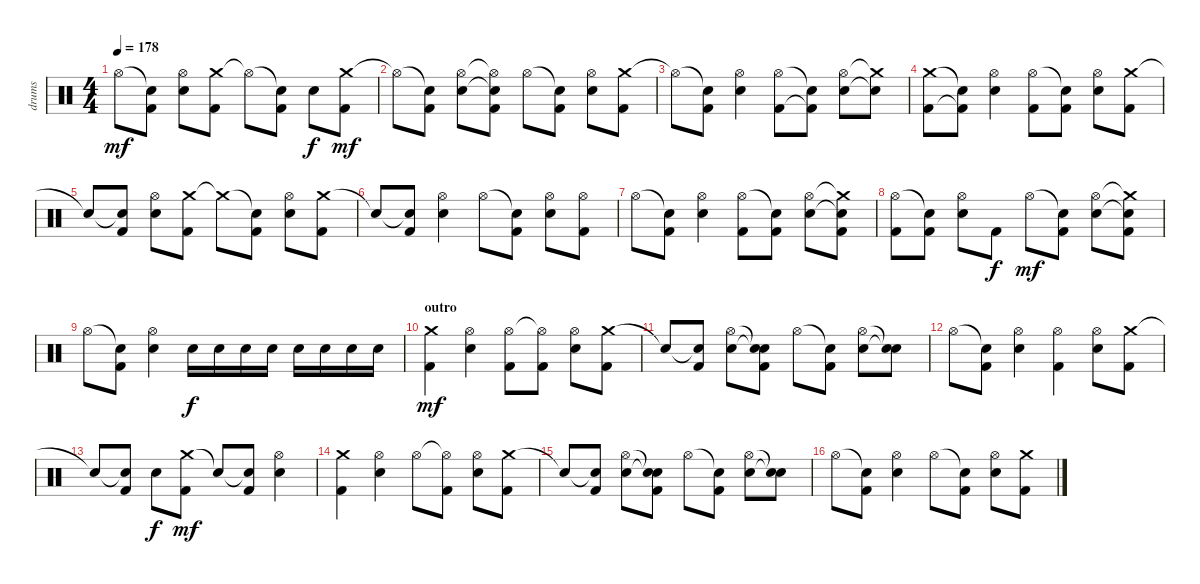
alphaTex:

\track ("drums" "drums") {instrument percussion}
\staff {score}
\articulation defaults
\ts (4 4)
\tempo 178
\clef neutral
\ks aminor "Hi-Hat (open)"{t}.8{dy mf}
("Snare (hit)"{t} "Kick (hit) 2").8 ("Hi-Hat (open)" "Snare (hit) 2").8 ("Crash medium (hit)" "Kick (hit) 2").8 "Hi-Hat (open)"{t}.8 ("Snare (hit)"{t} "Kick (hit) 2").8 "Snare (hit) 2".8{dy f} ("Crash medium (hit)" "Kick (hit) 2").8{dy mf} |
"Hi-Hat (open)"{t}.8 ("Snare (hit)"{t} "Kick (hit) 2").8 ("Hi-Hat (open)" "Snare (hit) 2").8 ("Hi-Hat (open)"{t} "Snare (hit)"{t} "Kick (hit) 2").8 "Hi-Hat (open)".8 ("Snare (hit)"{t} "Kick (hit) 2").8 ("Hi-Hat (open)" "Snare (hit) 2").8 ("Crash medium (hit)" "Kick (hit) 2").8 |
"Hi-Hat (open)"{t}.8 ("Snare (hit)"{t} "Kick (hit) 2").8 ("Hi-Hat (open)" "Snare (hit) 2").4 ("Hi-Hat (open)" "Kick (hit) 2").8 ("Snare (hit)"{t} "Kick (hit) 2"{t}).8 ("Hi-Hat (open)" "Snare (hit) 2").8 ("Crash medium (hit)"{t} "Snare (hit)"{t}).8 |
("Crash medium (hit)" "Kick (hit) 2").8 ("Snare (hit)"{t} "Kick (hit) 2"{t}).8 ("Hi-Hat (open)" "Snare (hit) 2").4 ("Hi-Hat (open)" "Kick (hit) 2").8 ("Snare (hit)"{t} "Kick (hit) 2").8 ("Hi-Hat (open)" "Snare (hit) 2").8 ("Crash medium (hit)" "Kick (hit) 2").8 |
"Snare (hit)"{t}.8 ("Snare (hit)"{t} "Kick (hit) 2").8 ("Hi-Hat (open)" "Snare (hit) 2").8 ("Crash medium (hit)" "Kick (hit) 2").8 "Crash medium (hit)"{t}.8 ("Snare (hit)"{t} "Kick (hit) 2").8 ("Hi-Hat (open)" "Snare (hit) 2").8 ("Crash medium (hit)" "Kick (hit) 2").8 |
"Snare (hit)"{t}.8 ("Snare (hit)"{t} "Kick (hit) 2").8 ("Hi-Hat (open)" "Snare (hit) 2").4 "Hi-Hat (open)".8 ("Snare (hit)"{t} "Kick (hit) 2").8 ("Hi-Hat (open)" "Snare (hit) 2").8 ("Hi-Hat (open)" "Kick (hit) 2").8 |
"Hi-Hat (open)".8 ("Snare (hit)"{t} "Kick (hit) 2").8 ("Hi-Hat (open)" "Snare (hit) 2").4 ("Hi-Hat (open)" "Kick (hit) 2").8 ("Snare (hit)"{t} "Kick (hit) 2").8 ("Hi-Hat (open)" "Snare (hit) 2").8 ("Crash medium (hit)"{t} "Snare (hit)"{t} "Kick (hit) 2").8 |
("Hi-Hat (open)" "Kick (hit) 2").8 ("Snare (hit)"{t} "Kick (hit) 2").8 ("Hi-Hat (open)" "Snare (hit) 2").8 "Kick (hit) 2".8{dy f} "Hi-Hat (open)".8{dy mf} ("Snare (hit)"{t} "Kick (hit) 2").8 ("Hi-Hat (open)" "Snare (hit) 2").8 ("Crash medium (hit)"{t} "Snare (hit)"{t} "Kick (hit) 2").8 |
"Hi-Hat (open)".8 ("Snare (hit)"{t} "Kick (hit) 2").8 ("Hi-Hat (open)" "Snare (hit) 2").4 "Snare (hit) 2".16{dy f} "Snare (hit) 2".16 "Snare (hit) 2".16 "Snare (hit) 2".16 "Snare (hit) 2".16 "Snare (hit) 2".16 "Snare (hit) 2".16 "Snare (hit) 2".16 |
\section ("" "outro")
("Crash medium (hit)" "Kick (hit) 2").4{dy mf} ("Hi-Hat (open)" "Snare (hit) 2").4 ("Hi-Hat (open)" "Kick (hit) 2").8 ("Hi-Hat (open)"{t} "Kick (hit) 2").8 ("Hi-Hat (open)" "Snare (hit) 2").8 ("Crash medium (hit)" "Kick (hit) 2").8 |
"Snare (hit)"{t}.8 ("Snare (hit)"{t} "Kick (hit) 2").8 ("Hi-Hat (open)" "Snare (hit) 2").8 ("Snare (hit)"{t} "Snare (hit)"{t} "Kick (hit) 2").8 "Hi-Hat (open)".8 ("Snare (hit)"{t} "Kick (hit) 2").8 ("Hi-Hat (open)" "Snare (hit) 2").8 ("Snare (hit)"{t} "Snare (hit)"{t}).8 |
"Hi-Hat (open)".8 ("Snare (hit)"{t} "Kick (hit) 2").8 ("Hi-Hat (open)" "Snare (hit) 2").4 ("Hi-Hat (open)" "Kick (hit) 2").4 ("Hi-Hat (open)" "Snare (hit) 2").8 ("Crash medium (hit)" "Kick (hit) 2").8 |
"Snare (hit)"{t}.8 ("Snare (hit)"{t} "Kick (hit) 2").8 "Snare (hit) 2".8{dy f} ("Crash medium (hit)" "Kick (hit) 2").8{dy mf} "Snare (hit)"{t}.8 ("Snare (hit)"{t} "Kick (hit) 2").8 ("Hi-Hat (open)" "Snare (hit) 2").4 |
("Crash medium (hit)" "Kick (hit) 2").4 ("Hi-Hat (open)" "Snare (hit) 2").4 "Hi-Hat (open)".8 ("Hi-Hat (open)"{t} "Kick (hit) 2").8 ("Hi-Hat (open)" "Snare (hit) 2").8 ("Crash medium (hit)" "Kick (hit) 2").8 |
"Snare (hit)"{t}.8 ("Snare (hit)"{t} "Kick (hit) 2").8 ("Hi-Hat (open)" "Snare (hit) 2").8 ("Snare (hit)"{t} "Snare (hit)"{t} "Kick (hit) 2").8 "Hi-Hat (open)".8 ("Snare (hit)"{t} "Kick (hit) 2").8 ("Hi-Hat (open)" "Snare (hit) 2").8 ("Snare (hit)"{t} "Snare (hit)"{t}).8 |
"Hi-Hat (open)".8 ("Snare (hit)"{t} "Kick (hit) 2").8 ("Hi-Hat (open)" "Snare (hit) 2").4 "Hi-Hat (open)".8 ("Snare (hit)"{t} "Kick (hit) 2").8 ("Hi-Hat (open)" "Snare (hit) 2").8 ("Crash medium (hit)" "Kick (hit) 2").8
